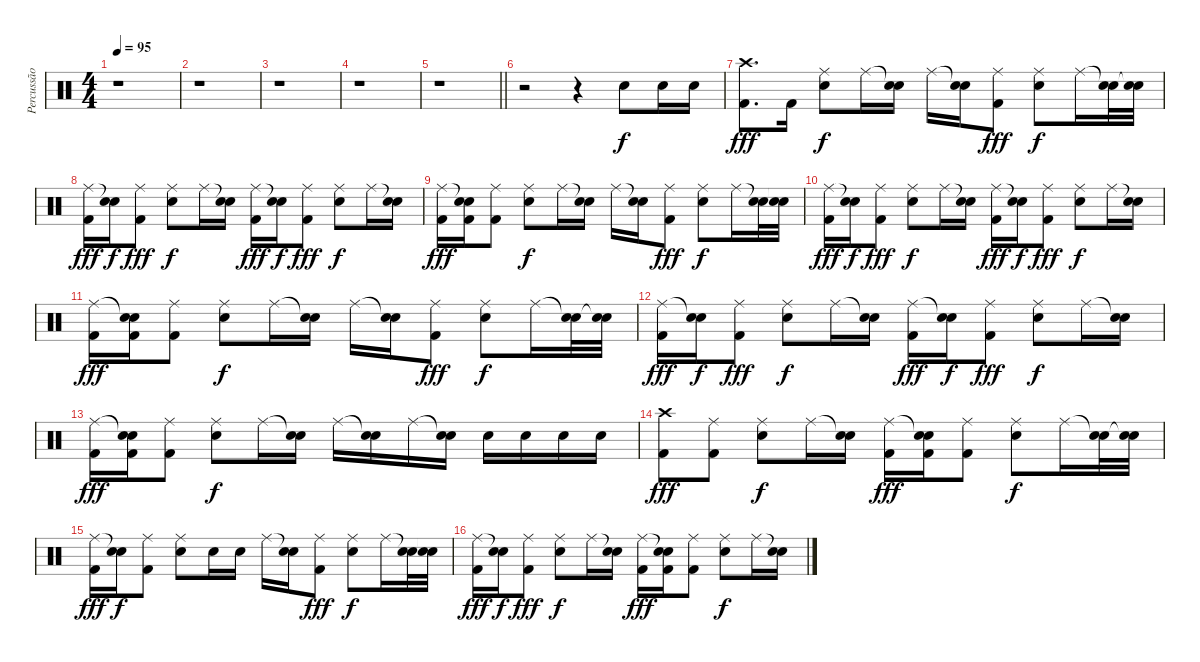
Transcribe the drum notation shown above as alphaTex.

\track ("Percussão" "Percussão") {instrument percussion}
\staff {score}
\articulation defaults
\ts (4 4)
\tempo 95
\clef neutral
\ks c
r.1{dy f} |
r.1 |
r.1 |
r.1 |
\barLineRight lightlight
r.1 |
r.2 r.4 "Snare (hit) 2".8 "Snare (hit) 2".16 "Snare (hit) 2".16 |
("Crash high (hit)" "Kick (hit) 2").8{d dy fff} "Kick (hit) 2".16 ("Ride (middle)" "Snare (hit) 2").8{dy f} "Ride (middle)".16 ("Snare (hit)"{t} "Snare (hit) 2").16 "Ride (middle)".16 ("Snare (hit)"{t} "Snare (hit) 2").16 ("Ride (middle)" "Kick (hit) 2").8{dy fff} ("Ride (middle)" "Snare (hit) 2").8{dy f} "Ride (middle)".16 ("Snare (hit)"{t} "Snare (hit) 2").32 ("Snare (hit)"{t} "Snare (hit) 2").32 |
("Ride (middle)" "Kick (hit) 2").16{dy fff} ("Snare (hit)"{t} "Snare (hit) 2").16{dy f} ("Ride (middle)" "Kick (hit) 2").8{dy fff} ("Ride (middle)" "Snare (hit) 2").8{dy f} "Ride (middle)".16 ("Snare (hit)"{t} "Snare (hit) 2").16 ("Ride (middle)" "Kick (hit) 2").16{dy fff} ("Snare (hit)"{t} "Snare (hit) 2").16{dy f} ("Ride (middle)" "Kick (hit) 2").8{dy fff} ("Ride (middle)" "Snare (hit) 2").8{dy f} "Ride (middle)".16 ("Snare (hit)"{t} "Snare (hit) 2").16 |
("Ride (middle)" "Kick (hit) 2").16{dy fff} ("Snare (hit)"{t} "Snare (hit) 2" "Kick (hit) 2").16 ("Ride (middle)" "Kick (hit) 2").8 ("Ride (middle)" "Snare (hit) 2").8{dy f} "Ride (middle)".16 ("Snare (hit)"{t} "Snare (hit) 2").16 "Ride (middle)".16 ("Snare (hit)"{t} "Snare (hit) 2").16 ("Ride (middle)" "Kick (hit) 2").8{dy fff} ("Ride (middle)" "Snare (hit) 2").8{dy f} "Ride (middle)".16 ("Snare (hit)"{t} "Snare (hit) 2").32 ("Snare (hit)"{t} "Snare (hit) 2").32 |
("Ride (middle)" "Kick (hit) 2").16{dy fff} ("Snare (hit)"{t} "Snare (hit) 2").16{dy f} ("Ride (middle)" "Kick (hit) 2").8{dy fff} ("Ride (middle)" "Snare (hit) 2").8{dy f} "Ride (middle)".16 ("Snare (hit)"{t} "Snare (hit) 2").16 ("Ride (middle)" "Kick (hit) 2").16{dy fff} ("Snare (hit)"{t} "Snare (hit) 2").16{dy f} ("Ride (middle)" "Kick (hit) 2").8{dy fff} ("Ride (middle)" "Snare (hit) 2").8{dy f} "Ride (middle)".16 ("Snare (hit)"{t} "Snare (hit) 2").16 |
("Ride (middle)" "Kick (hit) 2").16{dy fff} ("Snare (hit)"{t} "Snare (hit) 2" "Kick (hit) 2").16 ("Ride (middle)" "Kick (hit) 2").8 ("Ride (middle)" "Snare (hit) 2").8{dy f} "Ride (middle)".16 ("Snare (hit)"{t} "Snare (hit) 2").16 "Ride (middle)".16 ("Snare (hit)"{t} "Snare (hit) 2").16 ("Ride (middle)" "Kick (hit) 2").8{dy fff} ("Ride (middle)" "Snare (hit) 2").8{dy f} "Ride (middle)".16 ("Snare (hit)"{t} "Snare (hit) 2").32 ("Snare (hit)"{t} "Snare (hit) 2").32 |
("Ride (middle)" "Kick (hit) 2").16{dy fff} ("Snare (hit)"{t} "Snare (hit) 2").16{dy f} ("Ride (middle)" "Kick (hit) 2").8{dy fff} ("Ride (middle)" "Snare (hit) 2").8{dy f} "Ride (middle)".16 ("Snare (hit)"{t} "Snare (hit) 2").16 ("Ride (middle)" "Kick (hit) 2").16{dy fff} ("Snare (hit)"{t} "Snare (hit) 2").16{dy f} ("Ride (middle)" "Kick (hit) 2").8{dy fff} ("Ride (middle)" "Snare (hit) 2").8{dy f} "Ride (middle)".16 ("Snare (hit)"{t} "Snare (hit) 2").16 |
("Ride (middle)" "Kick (hit) 2").16{dy fff} ("Snare (hit)"{t} "Snare (hit) 2" "Kick (hit) 2").16 ("Ride (middle)" "Kick (hit) 2").8 ("Ride (middle)" "Snare (hit) 2").8{dy f} "Ride (middle)".16 ("Snare (hit)"{t} "Snare (hit) 2").16 "Ride (middle)".16 ("Snare (hit)"{t} "Snare (hit) 2").16 "Ride (middle)".16 ("Snare (hit)"{t} "Snare (hit) 2").16 "Snare (hit) 2".16 "Snare (hit) 2".16 "Snare (hit) 2".16 "Snare (hit) 2".16 |
("Crash high (hit)" "Kick (hit) 2").8{dy fff} ("Ride (middle)" "Kick (hit) 2").8 ("Ride (middle)" "Snare (hit) 2").8{dy f} "Ride (middle)".16 ("Snare (hit)"{t} "Snare (hit) 2").16 ("Ride (middle)" "Kick (hit) 2").16{dy fff} ("Snare (hit)"{t} "Snare (hit) 2" "Kick (hit) 2").16 ("Ride (middle)" "Kick (hit) 2").8 ("Ride (middle)" "Snare (hit) 2").8{dy f} "Ride (middle)".16 ("Snare (hit)"{t} "Snare (hit) 2").32 ("Snare (hit)"{t} "Snare (hit) 2").32 |
("Ride (middle)" "Kick (hit) 2").16{dy fff} ("Snare (hit)"{t} "Snare (hit) 2").16{dy f} ("Ride (middle)" "Kick (hit) 2").8 ("Ride (middle)" "Snare (hit) 2").8 "Snare (hit) 2".16 "Snare (hit) 2".16 "Ride (middle)".16 ("Snare (hit)"{t} "Snare (hit) 2").16 ("Ride (middle)" "Kick (hit) 2").8{dy fff} ("Ride (middle)" "Snare (hit) 2").8{dy f} "Ride (middle)".16 ("Snare (hit)"{t} "Snare (hit) 2").32 ("Snare (hit)"{t} "Snare (hit) 2").32 |
("Ride (middle)" "Kick (hit) 2").16{dy fff} ("Snare (hit)"{t} "Snare (hit) 2").16{dy f} ("Ride (middle)" "Kick (hit) 2").8{dy fff} ("Ride (middle)" "Snare (hit) 2").8{dy f} "Ride (middle)".16 ("Snare (hit)"{t} "Snare (hit) 2").16 ("Ride (middle)" "Kick (hit) 2").16{dy fff} ("Snare (hit)"{t} "Snare (hit) 2" "Kick (hit) 2").16 ("Ride (middle)" "Kick (hit) 2").8 ("Ride (middle)" "Snare (hit) 2").8{dy f} "Ride (middle)".16 ("Snare (hit)"{t} "Snare (hit) 2").16
